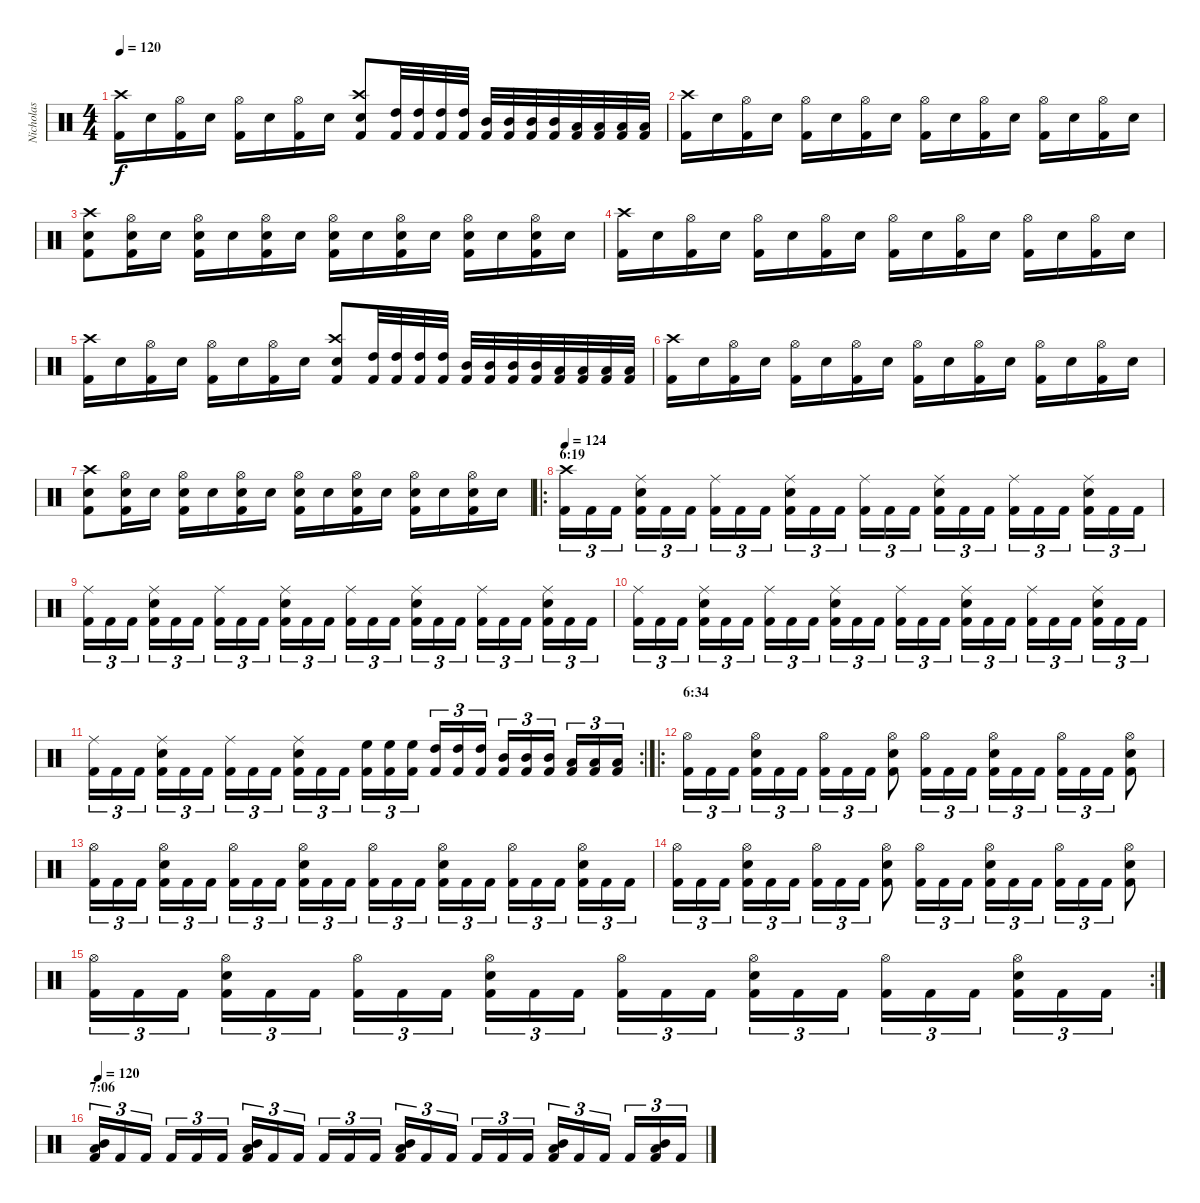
\track ("Nicholas" "Nicholas") {instrument percussion}
\staff {score}
\articulation defaults
\ts (4 4)
\tempo 120
\clef neutral
\ks c
("Kick (hit) 2" "Crash high (hit)").16{dy f} "Snare (hit) 2".16 ("Kick (hit) 2" "Hi-Hat (open)").16 "Snare (hit) 2".16 ("Kick (hit) 2" "Hi-Hat (open)").16 "Snare (hit) 2".16 ("Kick (hit) 2" "Hi-Hat (open)").16 "Snare (hit) 2".16 ("Kick (hit) 2" "Snare (hit) 2" "Crash high (hit)").8 ("Kick (hit) 2" "High Tom (hit)").32 ("Kick (hit) 2" "High Tom (hit)").32 ("Kick (hit) 2" "High Tom (hit)").32 ("Kick (hit) 2" "High Tom (hit)").32 ("Kick (hit) 2" "Mid Tom (hit)").32 ("Kick (hit) 2" "Mid Tom (hit)").32 ("Kick (hit) 2" "Mid Tom (hit)").32 ("Kick (hit) 2" "Mid Tom (hit)").32 ("Kick (hit) 2" "Low Tom (hit)").32 ("Kick (hit) 2" "Low Tom (hit)").32 ("Kick (hit) 2" "Low Tom (hit)").32 ("Kick (hit) 2" "Low Tom (hit)").32 |
("Kick (hit) 2" "Crash high (hit)").16 "Snare (hit) 2".16 ("Kick (hit) 2" "Hi-Hat (open)").16 "Snare (hit) 2".16 ("Kick (hit) 2" "Hi-Hat (open)").16 "Snare (hit) 2".16 ("Kick (hit) 2" "Hi-Hat (open)").16 "Snare (hit) 2".16 ("Kick (hit) 2" "Hi-Hat (open)").16 "Snare (hit) 2".16 ("Kick (hit) 2" "Hi-Hat (open)").16 "Snare (hit) 2".16 ("Kick (hit) 2" "Hi-Hat (open)").16 "Snare (hit) 2".16 ("Kick (hit) 2" "Hi-Hat (open)").16 "Snare (hit) 2".16 |
("Kick (hit) 2" "Snare (hit) 2" "Crash high (hit)").8 ("Kick (hit) 2" "Snare (hit) 2" "Hi-Hat (open)").16 "Snare (hit) 2".16 ("Kick (hit) 2" "Snare (hit) 2" "Hi-Hat (open)").16 "Snare (hit) 2".16 ("Kick (hit) 2" "Snare (hit) 2" "Hi-Hat (open)").16 "Snare (hit) 2".16 ("Kick (hit) 2" "Snare (hit) 2" "Hi-Hat (open)").16 "Snare (hit) 2".16 ("Kick (hit) 2" "Snare (hit) 2" "Hi-Hat (open)").16 "Snare (hit) 2".16 ("Kick (hit) 2" "Snare (hit) 2" "Hi-Hat (open)").16 "Snare (hit) 2".16 ("Kick (hit) 2" "Snare (hit) 2" "Hi-Hat (open)").16 "Snare (hit) 2".16 |
("Kick (hit) 2" "Crash high (hit)").16 "Snare (hit) 2".16 ("Kick (hit) 2" "Hi-Hat (open)").16 "Snare (hit) 2".16 ("Kick (hit) 2" "Hi-Hat (open)").16 "Snare (hit) 2".16 ("Kick (hit) 2" "Hi-Hat (open)").16 "Snare (hit) 2".16 ("Kick (hit) 2" "Hi-Hat (open)").16 "Snare (hit) 2".16 ("Kick (hit) 2" "Hi-Hat (open)").16 "Snare (hit) 2".16 ("Kick (hit) 2" "Hi-Hat (open)").16 "Snare (hit) 2".16 ("Kick (hit) 2" "Hi-Hat (open)").16 "Snare (hit) 2".16 |
("Kick (hit) 2" "Crash high (hit)").16 "Snare (hit) 2".16 ("Kick (hit) 2" "Hi-Hat (open)").16 "Snare (hit) 2".16 ("Kick (hit) 2" "Hi-Hat (open)").16 "Snare (hit) 2".16 ("Kick (hit) 2" "Hi-Hat (open)").16 "Snare (hit) 2".16 ("Kick (hit) 2" "Snare (hit) 2" "Crash high (hit)").8 ("Kick (hit) 2" "High Tom (hit)").32 ("Kick (hit) 2" "High Tom (hit)").32 ("Kick (hit) 2" "High Tom (hit)").32 ("Kick (hit) 2" "High Tom (hit)").32 ("Kick (hit) 2" "Mid Tom (hit)").32 ("Kick (hit) 2" "Mid Tom (hit)").32 ("Kick (hit) 2" "Mid Tom (hit)").32 ("Kick (hit) 2" "Mid Tom (hit)").32 ("Kick (hit) 2" "Low Tom (hit)").32 ("Kick (hit) 2" "Low Tom (hit)").32 ("Kick (hit) 2" "Low Tom (hit)").32 ("Kick (hit) 2" "Low Tom (hit)").32 |
("Kick (hit) 2" "Crash high (hit)").16 "Snare (hit) 2".16 ("Kick (hit) 2" "Hi-Hat (open)").16 "Snare (hit) 2".16 ("Kick (hit) 2" "Hi-Hat (open)").16 "Snare (hit) 2".16 ("Kick (hit) 2" "Hi-Hat (open)").16 "Snare (hit) 2".16 ("Kick (hit) 2" "Hi-Hat (open)").16 "Snare (hit) 2".16 ("Kick (hit) 2" "Hi-Hat (open)").16 "Snare (hit) 2".16 ("Kick (hit) 2" "Hi-Hat (open)").16 "Snare (hit) 2".16 ("Kick (hit) 2" "Hi-Hat (open)").16 "Snare (hit) 2".16 |
("Kick (hit) 2" "Snare (hit) 2" "Crash high (hit)").8 ("Kick (hit) 2" "Snare (hit) 2" "Hi-Hat (open)").16 "Snare (hit) 2".16 ("Kick (hit) 2" "Snare (hit) 2" "Hi-Hat (open)").16 "Snare (hit) 2".16 ("Kick (hit) 2" "Snare (hit) 2" "Hi-Hat (open)").16 "Snare (hit) 2".16 ("Kick (hit) 2" "Snare (hit) 2" "Hi-Hat (open)").16 "Snare (hit) 2".16 ("Kick (hit) 2" "Snare (hit) 2" "Hi-Hat (open)").16 "Snare (hit) 2".16 ("Kick (hit) 2" "Snare (hit) 2" "Hi-Hat (open)").16 "Snare (hit) 2".16 ("Kick (hit) 2" "Snare (hit) 2" "Hi-Hat (open)").16 "Snare (hit) 2".16 |
\ro
\section ("" "6:19")
\tempo 130
\tempo 124
("Kick (hit) 2" "Crash high (hit)").16{tu (3 2)} "Kick (hit) 2".16{tu (3 2)} "Kick (hit) 2".16{tu (3 2)} ("Kick (hit) 2" "Snare (hit) 2" "Ride (middle)").16{tu (3 2)} "Kick (hit) 2".16{tu (3 2)} "Kick (hit) 2".16{tu (3 2)} ("Kick (hit) 2" "Ride (middle)").16{tu (3 2)} "Kick (hit) 2".16{tu (3 2)} "Kick (hit) 2".16{tu (3 2)} ("Kick (hit) 2" "Snare (hit) 2" "Ride (middle)").16{tu (3 2)} "Kick (hit) 2".16{tu (3 2)} "Kick (hit) 2".16{tu (3 2)} ("Kick (hit) 2" "Ride (middle)").16{tu (3 2)} "Kick (hit) 2".16{tu (3 2)} "Kick (hit) 2".16{tu (3 2)} ("Kick (hit) 2" "Snare (hit) 2" "Ride (middle)").16{tu (3 2)} "Kick (hit) 2".16{tu (3 2)} "Kick (hit) 2".16{tu (3 2)} ("Kick (hit) 2" "Ride (middle)").16{tu (3 2)} "Kick (hit) 2".16{tu (3 2)} "Kick (hit) 2".16{tu (3 2)} ("Kick (hit) 2" "Snare (hit) 2" "Ride (middle)").16{tu (3 2)} "Kick (hit) 2".16{tu (3 2)} "Kick (hit) 2".16{tu (3 2)} |
("Kick (hit) 2" "Ride (middle)").16{tu (3 2)} "Kick (hit) 2".16{tu (3 2)} "Kick (hit) 2".16{tu (3 2)} ("Kick (hit) 2" "Snare (hit) 2" "Ride (middle)").16{tu (3 2)} "Kick (hit) 2".16{tu (3 2)} "Kick (hit) 2".16{tu (3 2)} ("Kick (hit) 2" "Ride (middle)").16{tu (3 2)} "Kick (hit) 2".16{tu (3 2)} "Kick (hit) 2".16{tu (3 2)} ("Kick (hit) 2" "Snare (hit) 2" "Ride (middle)").16{tu (3 2)} "Kick (hit) 2".16{tu (3 2)} "Kick (hit) 2".16{tu (3 2)} ("Kick (hit) 2" "Ride (middle)").16{tu (3 2)} "Kick (hit) 2".16{tu (3 2)} "Kick (hit) 2".16{tu (3 2)} ("Kick (hit) 2" "Snare (hit) 2" "Ride (middle)").16{tu (3 2)} "Kick (hit) 2".16{tu (3 2)} "Kick (hit) 2".16{tu (3 2)} ("Kick (hit) 2" "Ride (middle)").16{tu (3 2)} "Kick (hit) 2".16{tu (3 2)} "Kick (hit) 2".16{tu (3 2)} ("Kick (hit) 2" "Snare (hit) 2" "Ride (middle)").16{tu (3 2)} "Kick (hit) 2".16{tu (3 2)} "Kick (hit) 2".16{tu (3 2)} |
("Kick (hit) 2" "Ride (middle)").16{tu (3 2)} "Kick (hit) 2".16{tu (3 2)} "Kick (hit) 2".16{tu (3 2)} ("Kick (hit) 2" "Snare (hit) 2" "Ride (middle)").16{tu (3 2)} "Kick (hit) 2".16{tu (3 2)} "Kick (hit) 2".16{tu (3 2)} ("Kick (hit) 2" "Ride (middle)").16{tu (3 2)} "Kick (hit) 2".16{tu (3 2)} "Kick (hit) 2".16{tu (3 2)} ("Kick (hit) 2" "Snare (hit) 2" "Ride (middle)").16{tu (3 2)} "Kick (hit) 2".16{tu (3 2)} "Kick (hit) 2".16{tu (3 2)} ("Kick (hit) 2" "Ride (middle)").16{tu (3 2)} "Kick (hit) 2".16{tu (3 2)} "Kick (hit) 2".16{tu (3 2)} ("Kick (hit) 2" "Snare (hit) 2" "Ride (middle)").16{tu (3 2)} "Kick (hit) 2".16{tu (3 2)} "Kick (hit) 2".16{tu (3 2)} ("Kick (hit) 2" "Ride (middle)").16{tu (3 2)} "Kick (hit) 2".16{tu (3 2)} "Kick (hit) 2".16{tu (3 2)} ("Kick (hit) 2" "Snare (hit) 2" "Ride (middle)").16{tu (3 2)} "Kick (hit) 2".16{tu (3 2)} "Kick (hit) 2".16{tu (3 2)} |
\rc 2
("Kick (hit) 2" "Ride (middle)").16{tu (3 2)} "Kick (hit) 2".16{tu (3 2)} "Kick (hit) 2".16{tu (3 2)} ("Kick (hit) 2" "Snare (hit) 2" "Ride (middle)").16{tu (3 2)} "Kick (hit) 2".16{tu (3 2)} "Kick (hit) 2".16{tu (3 2)} ("Kick (hit) 2" "Ride (middle)").16{tu (3 2)} "Kick (hit) 2".16{tu (3 2)} "Kick (hit) 2".16{tu (3 2)} ("Kick (hit) 2" "Snare (hit) 2" "Ride (middle)").16{tu (3 2)} "Kick (hit) 2".16{tu (3 2)} "Kick (hit) 2".16{tu (3 2)} ("Kick (hit) 2" "High Floor Tom (hit)").16{tu (3 2)} ("Kick (hit) 2" "High Floor Tom (hit)").16{tu (3 2)} ("Kick (hit) 2" "High Floor Tom (hit)").16{tu (3 2)} ("Kick (hit) 2" "High Tom (hit)").16{tu (3 2)} ("Kick (hit) 2" "High Tom (hit)").16{tu (3 2)} ("Kick (hit) 2" "High Tom (hit)").16{tu (3 2)} ("Kick (hit) 2" "Mid Tom (hit)").16{tu (3 2)} ("Kick (hit) 2" "Mid Tom (hit)").16{tu (3 2)} ("Kick (hit) 2" "Mid Tom (hit)").16{tu (3 2)} ("Kick (hit) 2" "Low Tom (hit)").16{tu (3 2)} ("Kick (hit) 2" "Low Tom (hit)").16{tu (3 2)} ("Kick (hit) 2" "Low Tom (hit)").16{tu (3 2)} |
\ro
\section ("" "6:34")
("Kick (hit) 2" "Hi-Hat (open)").16{tu (3 2)} "Kick (hit) 2".16{tu (3 2)} "Kick (hit) 2".16{tu (3 2)} ("Kick (hit) 2" "Snare (hit) 2" "Hi-Hat (open)").16{tu (3 2)} "Kick (hit) 2".16{tu (3 2)} "Kick (hit) 2".16{tu (3 2)} ("Kick (hit) 2" "Hi-Hat (open)").16{tu (3 2)} "Kick (hit) 2".16{tu (3 2)} "Kick (hit) 2".16{tu (3 2)} ("Kick (hit) 2" "Snare (hit) 2" "Hi-Hat (open)").8 ("Kick (hit) 2" "Hi-Hat (open)").16{tu (3 2)} "Kick (hit) 2".16{tu (3 2)} "Kick (hit) 2".16{tu (3 2)} ("Kick (hit) 2" "Snare (hit) 2" "Hi-Hat (open)").16{tu (3 2)} "Kick (hit) 2".16{tu (3 2)} "Kick (hit) 2".16{tu (3 2)} ("Kick (hit) 2" "Hi-Hat (open)").16{tu (3 2)} "Kick (hit) 2".16{tu (3 2)} "Kick (hit) 2".16{tu (3 2)} ("Kick (hit) 2" "Snare (hit) 2" "Hi-Hat (open)").8 |
("Kick (hit) 2" "Hi-Hat (open)").16{tu (3 2)} "Kick (hit) 2".16{tu (3 2)} "Kick (hit) 2".16{tu (3 2)} ("Kick (hit) 2" "Snare (hit) 2" "Hi-Hat (open)").16{tu (3 2)} "Kick (hit) 2".16{tu (3 2)} "Kick (hit) 2".16{tu (3 2)} ("Kick (hit) 2" "Hi-Hat (open)").16{tu (3 2)} "Kick (hit) 2".16{tu (3 2)} "Kick (hit) 2".16{tu (3 2)} ("Kick (hit) 2" "Snare (hit) 2" "Hi-Hat (open)").16{tu (3 2)} "Kick (hit) 2".16{tu (3 2)} "Kick (hit) 2".16{tu (3 2)} ("Kick (hit) 2" "Hi-Hat (open)").16{tu (3 2)} "Kick (hit) 2".16{tu (3 2)} "Kick (hit) 2".16{tu (3 2)} ("Kick (hit) 2" "Snare (hit) 2" "Hi-Hat (open)").16{tu (3 2)} "Kick (hit) 2".16{tu (3 2)} "Kick (hit) 2".16{tu (3 2)} ("Kick (hit) 2" "Hi-Hat (open)").16{tu (3 2)} "Kick (hit) 2".16{tu (3 2)} "Kick (hit) 2".16{tu (3 2)} ("Kick (hit) 2" "Snare (hit) 2" "Hi-Hat (open)").16{tu (3 2)} "Kick (hit) 2".16{tu (3 2)} "Kick (hit) 2".16{tu (3 2)} |
("Kick (hit) 2" "Hi-Hat (open)").16{tu (3 2)} "Kick (hit) 2".16{tu (3 2)} "Kick (hit) 2".16{tu (3 2)} ("Kick (hit) 2" "Snare (hit) 2" "Hi-Hat (open)").16{tu (3 2)} "Kick (hit) 2".16{tu (3 2)} "Kick (hit) 2".16{tu (3 2)} ("Kick (hit) 2" "Hi-Hat (open)").16{tu (3 2)} "Kick (hit) 2".16{tu (3 2)} "Kick (hit) 2".16{tu (3 2)} ("Kick (hit) 2" "Snare (hit) 2" "Hi-Hat (open)").8 ("Kick (hit) 2" "Hi-Hat (open)").16{tu (3 2)} "Kick (hit) 2".16{tu (3 2)} "Kick (hit) 2".16{tu (3 2)} ("Kick (hit) 2" "Snare (hit) 2" "Hi-Hat (open)").16{tu (3 2)} "Kick (hit) 2".16{tu (3 2)} "Kick (hit) 2".16{tu (3 2)} ("Kick (hit) 2" "Hi-Hat (open)").16{tu (3 2)} "Kick (hit) 2".16{tu (3 2)} "Kick (hit) 2".16{tu (3 2)} ("Kick (hit) 2" "Snare (hit) 2" "Hi-Hat (open)").8 |
\rc 2
("Kick (hit) 2" "Hi-Hat (open)").16{tu (3 2)} "Kick (hit) 2".16{tu (3 2)} "Kick (hit) 2".16{tu (3 2)} ("Kick (hit) 2" "Snare (hit) 2" "Hi-Hat (open)").16{tu (3 2)} "Kick (hit) 2".16{tu (3 2)} "Kick (hit) 2".16{tu (3 2)} ("Kick (hit) 2" "Hi-Hat (open)").16{tu (3 2)} "Kick (hit) 2".16{tu (3 2)} "Kick (hit) 2".16{tu (3 2)} ("Kick (hit) 2" "Snare (hit) 2" "Hi-Hat (open)").16{tu (3 2)} "Kick (hit) 2".16{tu (3 2)} "Kick (hit) 2".16{tu (3 2)} ("Kick (hit) 2" "Hi-Hat (open)").16{tu (3 2)} "Kick (hit) 2".16{tu (3 2)} "Kick (hit) 2".16{tu (3 2)} ("Kick (hit) 2" "Snare (hit) 2" "Hi-Hat (open)").16{tu (3 2)} "Kick (hit) 2".16{tu (3 2)} "Kick (hit) 2".16{tu (3 2)} ("Kick (hit) 2" "Hi-Hat (open)").16{tu (3 2)} "Kick (hit) 2".16{tu (3 2)} "Kick (hit) 2".16{tu (3 2)} ("Kick (hit) 2" "Snare (hit) 2" "Hi-Hat (open)").16{tu (3 2)} "Kick (hit) 2".16{tu (3 2)} "Kick (hit) 2".16{tu (3 2)} |
\section ("" "7:06")
\tempo 120
("Kick (hit) 2" "Low Tom (hit)" "Mid Tom (hit)").16{tu (3 2)} "Kick (hit) 2".16{tu (3 2)} "Kick (hit) 2".16{tu (3 2)} "Kick (hit) 2".16{tu (3 2)} "Kick (hit) 2".16{tu (3 2)} "Kick (hit) 2".16{tu (3 2)} ("Kick (hit) 2" "Low Tom (hit)" "Mid Tom (hit)").16{tu (3 2)} "Kick (hit) 2".16{tu (3 2)} "Kick (hit) 2".16{tu (3 2)} "Kick (hit) 2".16{tu (3 2)} "Kick (hit) 2".16{tu (3 2)} "Kick (hit) 2".16{tu (3 2)} ("Kick (hit) 2" "Low Tom (hit)" "Mid Tom (hit)").16{tu (3 2)} "Kick (hit) 2".16{tu (3 2)} "Kick (hit) 2".16{tu (3 2)} "Kick (hit) 2".16{tu (3 2)} "Kick (hit) 2".16{tu (3 2)} "Kick (hit) 2".16{tu (3 2)} ("Kick (hit) 2" "Low Tom (hit)" "Mid Tom (hit)").16{tu (3 2)} "Kick (hit) 2".16{tu (3 2)} "Kick (hit) 2".16{tu (3 2)} "Kick (hit) 2".16{tu (3 2)} ("Kick (hit) 2" "Low Tom (hit)" "Mid Tom (hit)").16{tu (3 2)} "Kick (hit) 2".16{tu (3 2)}
